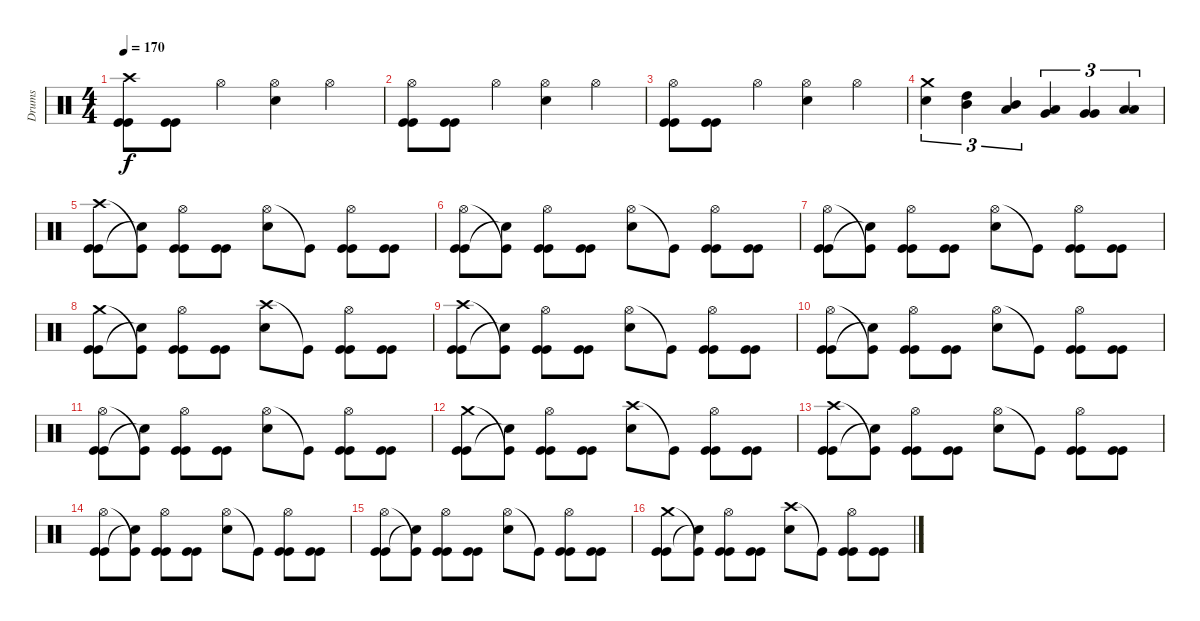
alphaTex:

\track ("Drums" "Drums") {instrument percussion}
\staff {score}
\articulation defaults
\ts (4 4)
\tempo 170
\clef neutral
\ks c
("Crash high (hit)" "Kick (hit)" "Kick (hit)").8{dy f} ("Kick (hit)" "Kick (hit)").8 "Hi-Hat (open)".4 ("Hi-Hat (open)" "Snare (hit) 2").4 "Hi-Hat (open)".4 |
("Hi-Hat (open)" "Kick (hit)" "Kick (hit)").8 ("Kick (hit)" "Kick (hit)").8 "Hi-Hat (open)".4 ("Hi-Hat (open)" "Snare (hit) 2").4 "Hi-Hat (open)".4 |
("Hi-Hat (open)" "Kick (hit)" "Kick (hit)").8 ("Kick (hit)" "Kick (hit)").8 "Hi-Hat (open)".4 ("Hi-Hat (open)" "Snare (hit) 2").4 "Hi-Hat (open)".4 |
("Crash medium (hit)" "Snare (hit) 2").4{tu (3 2)} ("High Tom (hit)" "Mid Tom (hit)").4{tu (3 2)} ("Mid Tom (hit)" "Low Tom (hit)").4{tu (3 2)} ("Low Tom (hit)" "Very Low Tom (hit)").4{tu (3 2)} ("Very Low Tom (hit)" "Very Low Tom (hit)").4{tu (3 2)} ("Low Floor Tom (hit)" "Low Floor Tom (hit)").4{tu (3 2)} |
("Crash high (hit)" "Kick (hit)" "Kick (hit)").8 ("Kick (hit)"{t} "Snare (hit)"{t}).8 ("Hi-Hat (open)" "Kick (hit)" "Kick (hit)").8 ("Kick (hit)" "Kick (hit)").8 ("Hi-Hat (open)" "Snare (hit) 2").8 "Kick (hit)"{t}.8 ("Hi-Hat (open)" "Kick (hit)" "Kick (hit)").8 ("Kick (hit)" "Kick (hit)").8 |
("Hi-Hat (open)" "Kick (hit)" "Kick (hit)").8 ("Kick (hit)"{t} "Snare (hit)"{t}).8 ("Hi-Hat (open)" "Kick (hit)" "Kick (hit)").8 ("Kick (hit)" "Kick (hit)").8 ("Hi-Hat (open)" "Snare (hit) 2").8 "Kick (hit)"{t}.8 ("Hi-Hat (open)" "Kick (hit)" "Kick (hit)").8 ("Kick (hit)" "Kick (hit)").8 |
("Hi-Hat (open)" "Kick (hit)" "Kick (hit)").8 ("Kick (hit)"{t} "Snare (hit)"{t}).8 ("Hi-Hat (open)" "Kick (hit)" "Kick (hit)").8 ("Kick (hit)" "Kick (hit)").8 ("Hi-Hat (open)" "Snare (hit) 2").8 "Kick (hit)"{t}.8 ("Hi-Hat (open)" "Kick (hit)" "Kick (hit)").8 ("Kick (hit)" "Kick (hit)").8 |
("Crash medium (hit)" "Kick (hit)" "Kick (hit)").8 ("Kick (hit)"{t} "Snare (hit)"{t}).8 ("Hi-Hat (open)" "Kick (hit)" "Kick (hit)").8 ("Kick (hit)" "Kick (hit)").8 ("Crash high (hit)" "Snare (hit) 2").8 "Kick (hit)"{t}.8 ("Hi-Hat (open)" "Kick (hit)" "Kick (hit)").8 ("Kick (hit)" "Kick (hit)").8 |
("Crash high (hit)" "Kick (hit)" "Kick (hit)").8 ("Kick (hit)"{t} "Snare (hit)"{t}).8 ("Hi-Hat (open)" "Kick (hit)" "Kick (hit)").8 ("Kick (hit)" "Kick (hit)").8 ("Hi-Hat (open)" "Snare (hit) 2").8 "Kick (hit)"{t}.8 ("Hi-Hat (open)" "Kick (hit)" "Kick (hit)").8 ("Kick (hit)" "Kick (hit)").8 |
("Hi-Hat (open)" "Kick (hit)" "Kick (hit)").8 ("Kick (hit)"{t} "Snare (hit)"{t}).8 ("Hi-Hat (open)" "Kick (hit)" "Kick (hit)").8 ("Kick (hit)" "Kick (hit)").8 ("Hi-Hat (open)" "Snare (hit) 2").8 "Kick (hit)"{t}.8 ("Hi-Hat (open)" "Kick (hit)" "Kick (hit)").8 ("Kick (hit)" "Kick (hit)").8 |
("Hi-Hat (open)" "Kick (hit)" "Kick (hit)").8 ("Kick (hit)"{t} "Snare (hit)"{t}).8 ("Hi-Hat (open)" "Kick (hit)" "Kick (hit)").8 ("Kick (hit)" "Kick (hit)").8 ("Hi-Hat (open)" "Snare (hit) 2").8 "Kick (hit)"{t}.8 ("Hi-Hat (open)" "Kick (hit)" "Kick (hit)").8 ("Kick (hit)" "Kick (hit)").8 |
("Crash medium (hit)" "Kick (hit)" "Kick (hit)").8 ("Kick (hit)"{t} "Snare (hit)"{t}).8 ("Hi-Hat (open)" "Kick (hit)" "Kick (hit)").8 ("Kick (hit)" "Kick (hit)").8 ("Crash high (hit)" "Snare (hit) 2").8 "Kick (hit)"{t}.8 ("Hi-Hat (open)" "Kick (hit)" "Kick (hit)").8 ("Kick (hit)" "Kick (hit)").8 |
("Crash high (hit)" "Kick (hit)" "Kick (hit)").8 ("Kick (hit)"{t} "Snare (hit)"{t}).8 ("Hi-Hat (open)" "Kick (hit)" "Kick (hit)").8 ("Kick (hit)" "Kick (hit)").8 ("Hi-Hat (open)" "Snare (hit) 2").8 "Kick (hit)"{t}.8 ("Hi-Hat (open)" "Kick (hit)" "Kick (hit)").8 ("Kick (hit)" "Kick (hit)").8 |
("Hi-Hat (open)" "Kick (hit)" "Kick (hit)").8 ("Kick (hit)"{t} "Snare (hit)"{t}).8 ("Hi-Hat (open)" "Kick (hit)" "Kick (hit)").8 ("Kick (hit)" "Kick (hit)").8 ("Hi-Hat (open)" "Snare (hit) 2").8 "Kick (hit)"{t}.8 ("Hi-Hat (open)" "Kick (hit)" "Kick (hit)").8 ("Kick (hit)" "Kick (hit)").8 |
("Hi-Hat (open)" "Kick (hit)" "Kick (hit)").8 ("Kick (hit)"{t} "Snare (hit)"{t}).8 ("Hi-Hat (open)" "Kick (hit)" "Kick (hit)").8 ("Kick (hit)" "Kick (hit)").8 ("Hi-Hat (open)" "Snare (hit) 2").8 "Kick (hit)"{t}.8 ("Hi-Hat (open)" "Kick (hit)" "Kick (hit)").8 ("Kick (hit)" "Kick (hit)").8 |
("Crash medium (hit)" "Kick (hit)" "Kick (hit)").8 ("Kick (hit)"{t} "Snare (hit)"{t}).8 ("Hi-Hat (open)" "Kick (hit)" "Kick (hit)").8 ("Kick (hit)" "Kick (hit)").8 ("Crash high (hit)" "Snare (hit) 2").8 "Kick (hit)"{t}.8 ("Hi-Hat (open)" "Kick (hit)" "Kick (hit)").8 ("Kick (hit)" "Kick (hit)").8
